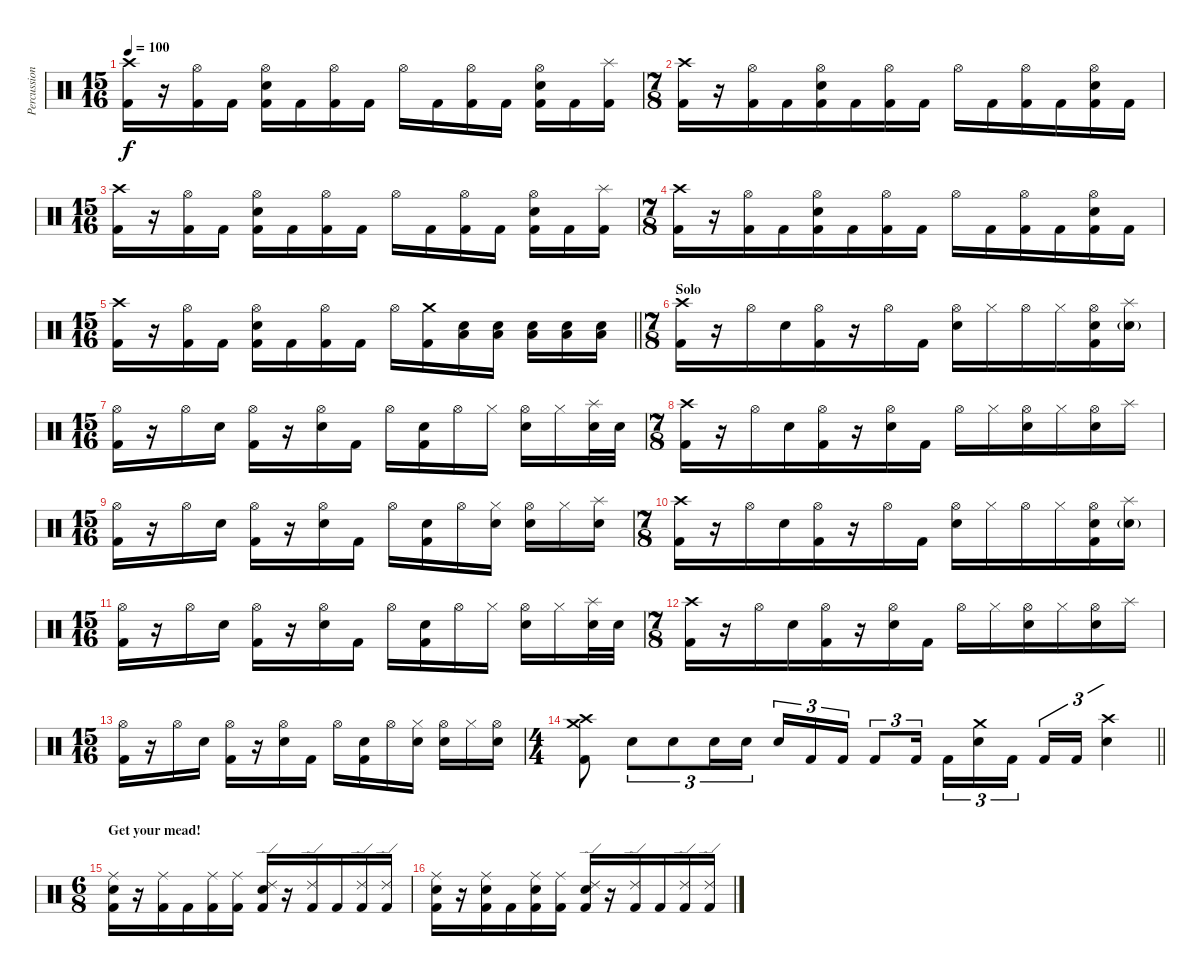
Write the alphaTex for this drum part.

\track ("Percussion" "Percussion") {instrument percussion}
\staff {score}
\articulation defaults
\ts (15 16)
\tempo 100
\clef neutral
\ks c
("Crash high (hit)" "Kick (hit) 2").16{dy f} r.16 ("Hi-Hat (open)" "Kick (hit) 2").16 "Kick (hit) 2".16 ("Hi-Hat (open)" "Electric Snare (hit)" "Kick (hit) 2").16 "Kick (hit) 2".16 ("Hi-Hat (open)" "Kick (hit) 2").16 "Kick (hit) 2".16 "Hi-Hat (open)".16 "Kick (hit) 2".16 ("Hi-Hat (open)" "Kick (hit) 2").16 "Kick (hit) 2".16 ("Hi-Hat (open)" "Electric Snare (hit)" "Kick (hit) 2").16 "Kick (hit) 2".16 ("Splash (hit)" "Kick (hit) 2").16 |
\ts (7 8)
("Crash high (hit)" "Kick (hit) 2").16 r.16 ("Hi-Hat (open)" "Kick (hit) 2").16 "Kick (hit) 2".16 ("Hi-Hat (open)" "Electric Snare (hit)" "Kick (hit) 2").16 "Kick (hit) 2".16 ("Hi-Hat (open)" "Kick (hit) 2").16 "Kick (hit) 2".16 "Hi-Hat (open)".16 "Kick (hit) 2".16 ("Hi-Hat (open)" "Kick (hit) 2").16 "Kick (hit) 2".16 ("Hi-Hat (open)" "Electric Snare (hit)" "Kick (hit) 2").16 "Kick (hit) 2".16 |
\ts (15 16)
("Crash high (hit)" "Kick (hit) 2").16 r.16 ("Hi-Hat (open)" "Kick (hit) 2").16 "Kick (hit) 2".16 ("Hi-Hat (open)" "Electric Snare (hit)" "Kick (hit) 2").16 "Kick (hit) 2".16 ("Hi-Hat (open)" "Kick (hit) 2").16 "Kick (hit) 2".16 "Hi-Hat (open)".16 "Kick (hit) 2".16 ("Hi-Hat (open)" "Kick (hit) 2").16 "Kick (hit) 2".16 ("Hi-Hat (open)" "Electric Snare (hit)" "Kick (hit) 2").16 "Kick (hit) 2".16 ("Splash (hit)" "Kick (hit) 2").16 |
\ts (7 8)
("Crash high (hit)" "Kick (hit) 2").16 r.16 ("Hi-Hat (open)" "Kick (hit) 2").16 "Kick (hit) 2".16 ("Hi-Hat (open)" "Electric Snare (hit)" "Kick (hit) 2").16 "Kick (hit) 2".16 ("Hi-Hat (open)" "Kick (hit) 2").16 "Kick (hit) 2".16 "Hi-Hat (open)".16 "Kick (hit) 2".16 ("Hi-Hat (open)" "Kick (hit) 2").16 "Kick (hit) 2".16 ("Hi-Hat (open)" "Electric Snare (hit)" "Kick (hit) 2").16 "Kick (hit) 2".16 |
\ts (15 16)
\barLineRight lightlight
("Crash high (hit)" "Kick (hit) 2").16 r.16 ("Hi-Hat (open)" "Kick (hit) 2").16 "Kick (hit) 2".16 ("Hi-Hat (open)" "Electric Snare (hit)" "Kick (hit) 2").16 "Kick (hit) 2".16 ("Hi-Hat (open)" "Kick (hit) 2").16 "Kick (hit) 2".16 "Hi-Hat (open)".16 ("Crash medium (hit)" "Kick (hit) 2").16 ("Low Floor Tom (hit)" "Electric Snare (hit)").16 ("Low Floor Tom (hit)" "Electric Snare (hit)").16 ("Low Floor Tom (hit)" "Electric Snare (hit)").16 ("Low Floor Tom (hit)" "Electric Snare (hit)").16 ("Low Floor Tom (hit)" "Electric Snare (hit)").16 |
\ts (7 8)
\section ("" "Solo")
("Crash high (hit)" "Kick (hit) 2").16 r.16 "Hi-Hat (open)".16 "Electric Snare (hit)".16 ("Hi-Hat (open)" "Kick (hit) 2").16 r.16 "Hi-Hat (open)".16 "Kick (hit) 2".16 ("Hi-Hat (open)" "Electric Snare (hit)").16 "Hi-Hat (closed)".16 "Hi-Hat (open)".16 "Hi-Hat (closed)".16 ("Hi-Hat (open)" "Electric Snare (hit)" "Kick (hit) 2").16 ("Splash (hit)" "Electric Snare (hit)"{g}).16 |
\ts (15 16)
("Hi-Hat (open)" "Kick (hit) 2").16 r.16 "Hi-Hat (open)".16 "Electric Snare (hit)".16 ("Hi-Hat (open)" "Kick (hit) 2").16 r.16 ("Hi-Hat (open)" "Electric Snare (hit)").16 "Kick (hit) 2".16 "Hi-Hat (open)".16 ("Electric Snare (hit)" "Kick (hit) 2").16 "Hi-Hat (open)".16 "Hi-Hat (closed)".16 ("Hi-Hat (open)" "Electric Snare (hit)").16 "Hi-Hat (closed)".16 ("Splash (hit)" "Electric Snare (hit)").32 "Electric Snare (hit)".32 |
\ts (7 8)
("Crash high (hit)" "Kick (hit) 2").16 r.16 "Hi-Hat (open)".16 "Electric Snare (hit)".16 ("Hi-Hat (open)" "Kick (hit) 2").16 r.16 ("Hi-Hat (open)" "Electric Snare (hit)").16 "Kick (hit) 2".16 "Hi-Hat (open)".16 "Hi-Hat (closed)".16 ("Hi-Hat (open)" "Electric Snare (hit)").16 "Hi-Hat (closed)".16 ("Hi-Hat (open)" "Electric Snare (hit)").16 "Splash (hit)".16 |
\ts (15 16)
("Hi-Hat (open)" "Kick (hit) 2").16 r.16 "Hi-Hat (open)".16 "Electric Snare (hit)".16 ("Hi-Hat (open)" "Kick (hit) 2").16 r.16 ("Hi-Hat (open)" "Electric Snare (hit)").16 "Kick (hit) 2".16 "Hi-Hat (open)".16 ("Electric Snare (hit)" "Kick (hit) 2").16 "Hi-Hat (open)".16 ("Hi-Hat (closed)" "Electric Snare (hit)").16 ("Hi-Hat (open)" "Electric Snare (hit)").16 "Hi-Hat (closed)".16 ("Splash (hit)" "Electric Snare (hit)").16 |
\ts (7 8)
("Crash high (hit)" "Kick (hit) 2").16 r.16 "Hi-Hat (open)".16 "Electric Snare (hit)".16 ("Hi-Hat (open)" "Kick (hit) 2").16 r.16 "Hi-Hat (open)".16 "Kick (hit) 2".16 ("Hi-Hat (open)" "Electric Snare (hit)").16 "Hi-Hat (closed)".16 "Hi-Hat (open)".16 "Hi-Hat (closed)".16 ("Hi-Hat (open)" "Electric Snare (hit)" "Kick (hit) 2").16 ("Splash (hit)" "Electric Snare (hit)"{g}).16 |
\ts (15 16)
("Hi-Hat (open)" "Kick (hit) 2").16 r.16 "Hi-Hat (open)".16 "Electric Snare (hit)".16 ("Hi-Hat (open)" "Kick (hit) 2").16 r.16 ("Hi-Hat (open)" "Electric Snare (hit)").16 "Kick (hit) 2".16 "Hi-Hat (open)".16 ("Electric Snare (hit)" "Kick (hit) 2").16 "Hi-Hat (open)".16 "Hi-Hat (closed)".16 ("Hi-Hat (open)" "Electric Snare (hit)").16 "Hi-Hat (closed)".16 ("Splash (hit)" "Electric Snare (hit)").32 "Electric Snare (hit)".32 |
\ts (7 8)
("Crash high (hit)" "Kick (hit) 2").16 r.16 "Hi-Hat (open)".16 "Electric Snare (hit)".16 ("Hi-Hat (open)" "Kick (hit) 2").16 r.16 ("Hi-Hat (open)" "Electric Snare (hit)").16 "Kick (hit) 2".16 "Hi-Hat (open)".16 "Hi-Hat (closed)".16 ("Hi-Hat (open)" "Electric Snare (hit)").16 "Hi-Hat (closed)".16 ("Hi-Hat (open)" "Electric Snare (hit)").16 "Splash (hit)".16 |
\ts (15 16)
("Hi-Hat (open)" "Kick (hit) 2").16 r.16 "Hi-Hat (open)".16 "Electric Snare (hit)".16 ("Hi-Hat (open)" "Kick (hit) 2").16 r.16 ("Hi-Hat (open)" "Electric Snare (hit)").16 "Kick (hit) 2".16 "Hi-Hat (open)".16 ("Electric Snare (hit)" "Kick (hit) 2").16 "Hi-Hat (open)".16 ("Hi-Hat (closed)" "Electric Snare (hit)").16 ("Hi-Hat (open)" "Electric Snare (hit)").16 "Hi-Hat (closed)".16 ("Hi-Hat (open)" "Electric Snare (hit)").16 |
\ts (4 4)
\barLineRight lightlight
("Crash medium (hit)" "Crash high (hit)" "Kick (hit) 2").8 "Electric Snare (hit)".8{tu (3 2)} "Electric Snare (hit)".8{tu (3 2)} "Electric Snare (hit)".16{tu (3 2)} "Electric Snare (hit)".16{tu (3 2)} "Electric Snare (hit)".16{tu (3 2)} "Kick (hit) 2".16{tu (3 2)} "Kick (hit) 2".16{tu (3 2)} "Kick (hit) 2".8{tu (3 2)} "Kick (hit) 2".16{tu (3 2)} "Kick (hit) 2".16{tu (3 2)} ("Crash medium (hit)" "Electric Snare (hit)").16{tu (3 2)} "Kick (hit) 2".16{tu (3 2)} "Kick (hit) 2".16{tu (3 2)} "Kick (hit) 2".16{tu (3 2)} ("Crash high (hit)" "Electric Snare (hit)").4{tu (3 2)} |
\ts (6 8)
\section ("" "Get your mead!")
("Ride (middle)" "Electric Snare (hit)" "Kick (hit) 2").16 r.16 ("Ride (middle)" "Kick (hit) 2").16 "Kick (hit) 2".16 ("Ride (middle)" "Kick (hit) 2").16 ("Ride (middle)" "Kick (hit) 2").16 ("Ride (edge) 2" "Electric Snare (hit)" "Kick (hit) 2").16 r.16 ("Ride (edge) 2" "Kick (hit) 2").16 "Kick (hit) 2".16 ("Ride (edge) 2" "Kick (hit) 2").16 ("Ride (edge) 2" "Kick (hit) 2").16 |
("Ride (middle)" "Electric Snare (hit)" "Kick (hit) 2").16 r.16 ("Ride (middle)" "Electric Snare (hit)" "Kick (hit) 2").16 "Kick (hit) 2".16 ("Ride (middle)" "Electric Snare (hit)" "Kick (hit) 2").16 ("Ride (middle)" "Kick (hit) 2").16 ("Ride (edge) 2" "Electric Snare (hit)" "Kick (hit) 2").16 r.16 ("Ride (edge) 2" "Kick (hit) 2").16 "Kick (hit) 2".16 ("Ride (edge) 2" "Kick (hit) 2").16 ("Ride (edge) 2" "Kick (hit) 2").16
